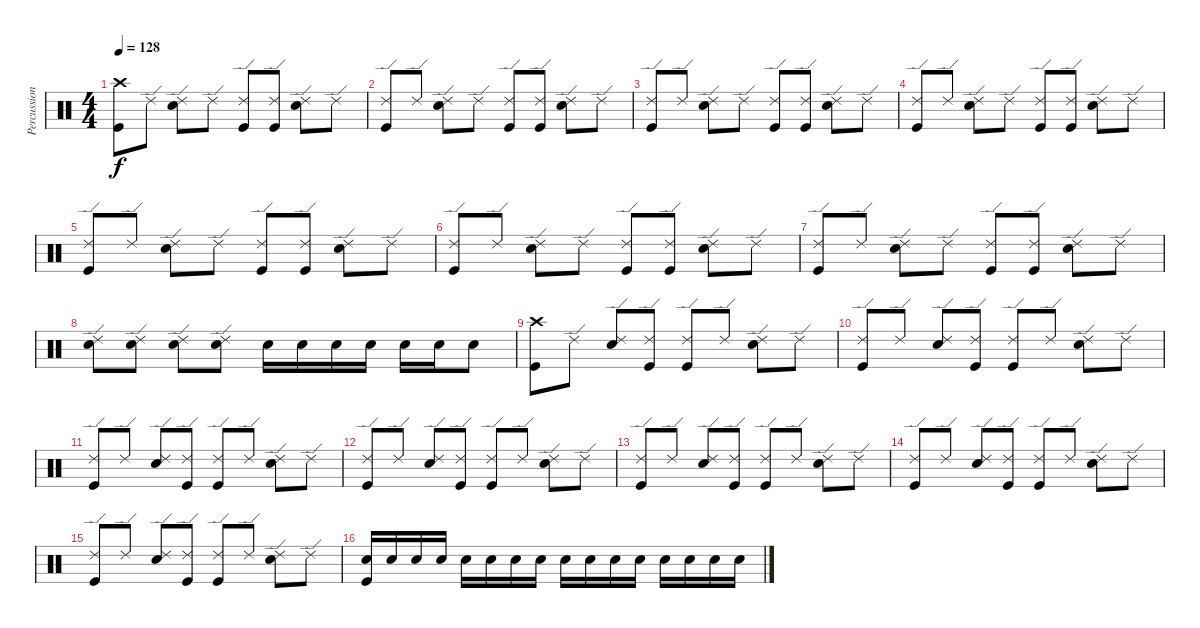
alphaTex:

\track ("Percussion" "Percussion") {instrument percussion}
\staff {score}
\articulation defaults
\ts (4 4)
\tempo 128
\clef neutral
\ks c
("Crash high (hit)" "Kick (hit)").8{dy f} "Ride (edge) 2".8 ("Ride (edge) 2" "Snare (hit) 2").8 "Ride (edge) 2".8 ("Ride (edge) 2" "Kick (hit)").8 ("Ride (edge) 2" "Kick (hit)").8 ("Ride (edge) 2" "Snare (hit) 2").8 "Ride (edge) 2".8 |
("Ride (edge) 2" "Kick (hit)").8 "Ride (edge) 2".8 ("Ride (edge) 2" "Snare (hit) 2").8 "Ride (edge) 2".8 ("Ride (edge) 2" "Kick (hit)").8 ("Ride (edge) 2" "Kick (hit)").8 ("Ride (edge) 2" "Snare (hit) 2").8 "Ride (edge) 2".8 |
("Ride (edge) 2" "Kick (hit)").8 "Ride (edge) 2".8 ("Ride (edge) 2" "Snare (hit) 2").8 "Ride (edge) 2".8 ("Ride (edge) 2" "Kick (hit)").8 ("Ride (edge) 2" "Kick (hit)").8 ("Ride (edge) 2" "Snare (hit) 2").8 "Ride (edge) 2".8 |
("Ride (edge) 2" "Kick (hit)").8 "Ride (edge) 2".8 ("Ride (edge) 2" "Snare (hit) 2").8 "Ride (edge) 2".8 ("Ride (edge) 2" "Kick (hit)").8 ("Ride (edge) 2" "Kick (hit)").8 ("Ride (edge) 2" "Snare (hit) 2").8 "Ride (edge) 2".8 |
("Ride (edge) 2" "Kick (hit)").8 "Ride (edge) 2".8 ("Ride (edge) 2" "Snare (hit) 2").8 "Ride (edge) 2".8 ("Ride (edge) 2" "Kick (hit)").8 ("Ride (edge) 2" "Kick (hit)").8 ("Ride (edge) 2" "Snare (hit) 2").8 "Ride (edge) 2".8 |
("Ride (edge) 2" "Kick (hit)").8 "Ride (edge) 2".8 ("Ride (edge) 2" "Snare (hit) 2").8 "Ride (edge) 2".8 ("Ride (edge) 2" "Kick (hit)").8 ("Ride (edge) 2" "Kick (hit)").8 ("Ride (edge) 2" "Snare (hit) 2").8 "Ride (edge) 2".8 |
("Ride (edge) 2" "Kick (hit)").8 "Ride (edge) 2".8 ("Ride (edge) 2" "Snare (hit) 2").8 "Ride (edge) 2".8 ("Ride (edge) 2" "Kick (hit)").8 ("Ride (edge) 2" "Kick (hit)").8 ("Ride (edge) 2" "Snare (hit) 2").8 "Ride (edge) 2".8 |
("Ride (edge) 2" "Snare (hit) 2").8 ("Ride (edge) 2" "Snare (hit) 2").8 ("Ride (edge) 2" "Snare (hit) 2").8 ("Ride (edge) 2" "Snare (hit) 2").8 "Snare (hit) 2".16 "Snare (hit) 2".16 "Snare (hit) 2".16 "Snare (hit) 2".16 "Snare (hit) 2".16 "Snare (hit) 2".16 "Snare (hit) 2".8 |
("Crash high (hit)" "Kick (hit)").8 "Ride (edge) 2".8 ("Ride (edge) 2" "Snare (hit) 2").8 ("Ride (edge) 2" "Kick (hit)").8 ("Ride (edge) 2" "Kick (hit)").8 "Ride (edge) 2".8 ("Ride (edge) 2" "Snare (hit) 2").8 "Ride (edge) 2".8 |
("Ride (edge) 2" "Kick (hit)").8 "Ride (edge) 2".8 ("Ride (edge) 2" "Snare (hit) 2").8 ("Ride (edge) 2" "Kick (hit)").8 ("Ride (edge) 2" "Kick (hit)").8 "Ride (edge) 2".8 ("Ride (edge) 2" "Snare (hit) 2").8 "Ride (edge) 2".8 |
("Ride (edge) 2" "Kick (hit)").8 "Ride (edge) 2".8 ("Ride (edge) 2" "Snare (hit) 2").8 ("Ride (edge) 2" "Kick (hit)").8 ("Ride (edge) 2" "Kick (hit)").8 "Ride (edge) 2".8 ("Ride (edge) 2" "Snare (hit) 2").8 "Ride (edge) 2".8 |
("Ride (edge) 2" "Kick (hit)").8 "Ride (edge) 2".8 ("Ride (edge) 2" "Snare (hit) 2").8 ("Ride (edge) 2" "Kick (hit)").8 ("Ride (edge) 2" "Kick (hit)").8 "Ride (edge) 2".8 ("Ride (edge) 2" "Snare (hit) 2").8 "Ride (edge) 2".8 |
("Ride (edge) 2" "Kick (hit)").8 "Ride (edge) 2".8 ("Ride (edge) 2" "Snare (hit) 2").8 ("Ride (edge) 2" "Kick (hit)").8 ("Ride (edge) 2" "Kick (hit)").8 "Ride (edge) 2".8 ("Ride (edge) 2" "Snare (hit) 2").8 "Ride (edge) 2".8 |
("Ride (edge) 2" "Kick (hit)").8 "Ride (edge) 2".8 ("Ride (edge) 2" "Snare (hit) 2").8 ("Ride (edge) 2" "Kick (hit)").8 ("Ride (edge) 2" "Kick (hit)").8 "Ride (edge) 2".8 ("Ride (edge) 2" "Snare (hit) 2").8 "Ride (edge) 2".8 |
("Ride (edge) 2" "Kick (hit)").8 "Ride (edge) 2".8 ("Ride (edge) 2" "Snare (hit) 2").8 ("Ride (edge) 2" "Kick (hit)").8 ("Ride (edge) 2" "Kick (hit)").8 "Ride (edge) 2".8 ("Ride (edge) 2" "Snare (hit) 2").8 "Ride (edge) 2".8 |
("Snare (hit) 2" "Kick (hit)").16 "Snare (hit) 2".16 "Snare (hit) 2".16 "Snare (hit) 2".16 "Snare (hit) 2".16 "Snare (hit) 2".16 "Snare (hit) 2".16 "Snare (hit) 2".16 "Snare (hit) 2".16 "Snare (hit) 2".16 "Snare (hit) 2".16 "Snare (hit) 2".16 "Snare (hit) 2".16 "Snare (hit) 2".16 "Snare (hit) 2".16 "Snare (hit) 2".16
